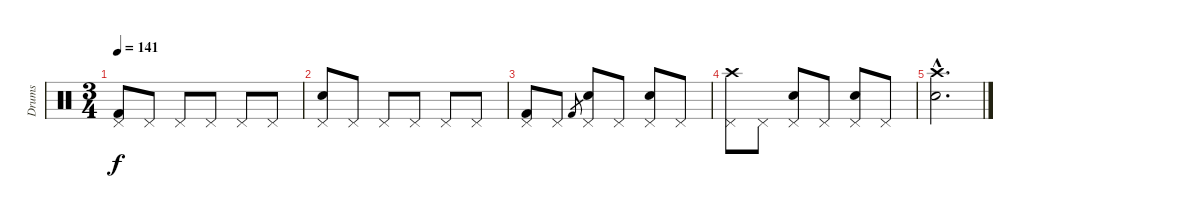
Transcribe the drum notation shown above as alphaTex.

\track ("Drums" "Drums") {instrument percussion}
\staff {score}
\articulation defaults
\ts (3 4)
\tempo 141
\clef neutral
\ks c
("Pedal Hi-Hat (hit)" "Kick (hit) 2").8{dy f} "Pedal Hi-Hat (hit)".8 "Pedal Hi-Hat (hit)".8 "Pedal Hi-Hat (hit)".8 "Pedal Hi-Hat (hit)".8 "Pedal Hi-Hat (hit)".8 |
("Pedal Hi-Hat (hit)" "Electric Snare (hit)").8 "Pedal Hi-Hat (hit)".8 "Pedal Hi-Hat (hit)".8 "Pedal Hi-Hat (hit)".8 "Pedal Hi-Hat (hit)".8 "Pedal Hi-Hat (hit)".8 |
("Pedal Hi-Hat (hit)" "Kick (hit) 2").8 "Pedal Hi-Hat (hit)".8 "Kick (hit) 2".8{gr} ("Pedal Hi-Hat (hit)" "Electric Snare (hit)").8 "Pedal Hi-Hat (hit)".8 ("Pedal Hi-Hat (hit)" "Electric Snare (hit)").8 "Pedal Hi-Hat (hit)".8 |
("Pedal Hi-Hat (hit)" "Crash high (hit)").8 "Pedal Hi-Hat (hit)".8 ("Pedal Hi-Hat (hit)" "Electric Snare (hit)").8 "Pedal Hi-Hat (hit)".8 ("Pedal Hi-Hat (hit)" "Electric Snare (hit)").8 "Pedal Hi-Hat (hit)".8 |
("Crash high (hit)"{hac} "Electric Snare (hit)"{hac}).2{d}
